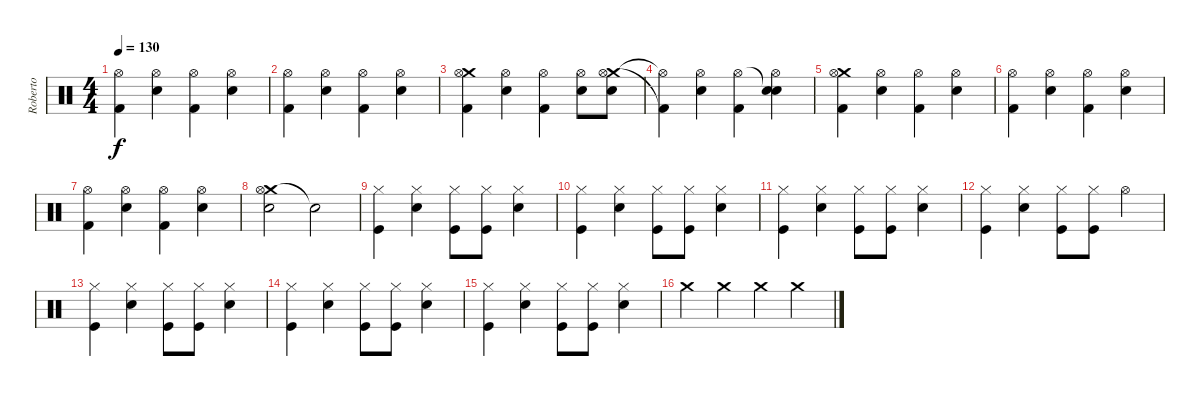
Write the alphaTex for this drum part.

\track ("Roberto" "Roberto") {instrument percussion}
\staff {score}
\articulation defaults
\ts (4 4)
\tempo 130
\clef neutral
\ks c
("Hi-Hat (open)" "Kick (hit) 2").4{dy f} ("Hi-Hat (open)" "Snare (hit) 2").4 ("Hi-Hat (open)" "Kick (hit) 2").4 ("Hi-Hat (open)" "Snare (hit) 2").4 |
("Hi-Hat (open)" "Kick (hit) 2").4 ("Hi-Hat (open)" "Snare (hit) 2").4 ("Hi-Hat (open)" "Kick (hit) 2").4 ("Hi-Hat (open)" "Snare (hit) 2").4 |
("Crash medium (hit)" "Hi-Hat (open)" "Kick (hit) 2").4 ("Hi-Hat (open)" "Snare (hit) 2").4 ("Hi-Hat (open)" "Kick (hit) 2").4 ("Hi-Hat (open)" "Snare (hit) 2").8 ("Crash medium (hit)" "Hi-Hat (open)" "Snare (hit) 2").8 |
("Hi-Hat (open)"{t} "Kick (hit) 2"{t}).4 ("Hi-Hat (open)" "Snare (hit) 2").4 ("Hi-Hat (open)" "Kick (hit) 2").4 ("Snare (hit)"{t} "Hi-Hat (open)" "Snare (hit) 2").4 |
("Crash medium (hit)" "Hi-Hat (open)" "Kick (hit) 2").4 ("Hi-Hat (open)" "Snare (hit) 2").4 ("Hi-Hat (open)" "Kick (hit) 2").4 ("Hi-Hat (open)" "Snare (hit) 2").4 |
("Hi-Hat (open)" "Kick (hit) 2").4 ("Hi-Hat (open)" "Snare (hit) 2").4 ("Hi-Hat (open)" "Kick (hit) 2").4 ("Hi-Hat (open)" "Snare (hit) 2").4 |
("Hi-Hat (open)" "Kick (hit) 2").4 ("Hi-Hat (open)" "Snare (hit) 2").4 ("Hi-Hat (open)" "Kick (hit) 2").4 ("Hi-Hat (open)" "Snare (hit) 2").4 |
("Crash medium (hit)" "Hi-Hat (open)" "Snare (hit) 2").2 "Snare (hit)"{t}.2 |
("Hi-Hat (closed)" "Kick (hit)").4 ("Hi-Hat (closed)" "Snare (hit) 2").4 ("Hi-Hat (closed)" "Kick (hit)").8 ("Hi-Hat (closed)" "Kick (hit)").8 ("Hi-Hat (closed)" "Snare (hit) 2").4 |
("Hi-Hat (closed)" "Kick (hit)").4 ("Hi-Hat (closed)" "Snare (hit) 2").4 ("Hi-Hat (closed)" "Kick (hit)").8 ("Hi-Hat (closed)" "Kick (hit)").8 ("Hi-Hat (closed)" "Snare (hit) 2").4 |
("Hi-Hat (closed)" "Kick (hit)").4 ("Hi-Hat (closed)" "Snare (hit) 2").4 ("Hi-Hat (closed)" "Kick (hit)").8 ("Hi-Hat (closed)" "Kick (hit)").8 ("Hi-Hat (closed)" "Snare (hit) 2").4 |
("Hi-Hat (closed)" "Kick (hit)").4 ("Hi-Hat (closed)" "Snare (hit) 2").4 ("Hi-Hat (closed)" "Kick (hit)").8 ("Hi-Hat (closed)" "Kick (hit)").8 "Hi-Hat (open)".4 |
("Hi-Hat (closed)" "Kick (hit)").4 ("Hi-Hat (closed)" "Snare (hit) 2").4 ("Hi-Hat (closed)" "Kick (hit)").8 ("Hi-Hat (closed)" "Kick (hit)").8 ("Hi-Hat (closed)" "Snare (hit) 2").4 |
("Hi-Hat (closed)" "Kick (hit)").4 ("Hi-Hat (closed)" "Snare (hit) 2").4 ("Hi-Hat (closed)" "Kick (hit)").8 ("Hi-Hat (closed)" "Kick (hit)").8 ("Hi-Hat (closed)" "Snare (hit) 2").4 |
("Hi-Hat (closed)" "Kick (hit)").4 ("Hi-Hat (closed)" "Snare (hit) 2").4 ("Hi-Hat (closed)" "Kick (hit)").8 ("Hi-Hat (closed)" "Kick (hit)").8 ("Hi-Hat (closed)" "Snare (hit) 2").4 |
"Crash medium (hit)".4 "Crash medium (hit)".4 "Crash medium (hit)".4 "Crash medium (hit)".4
